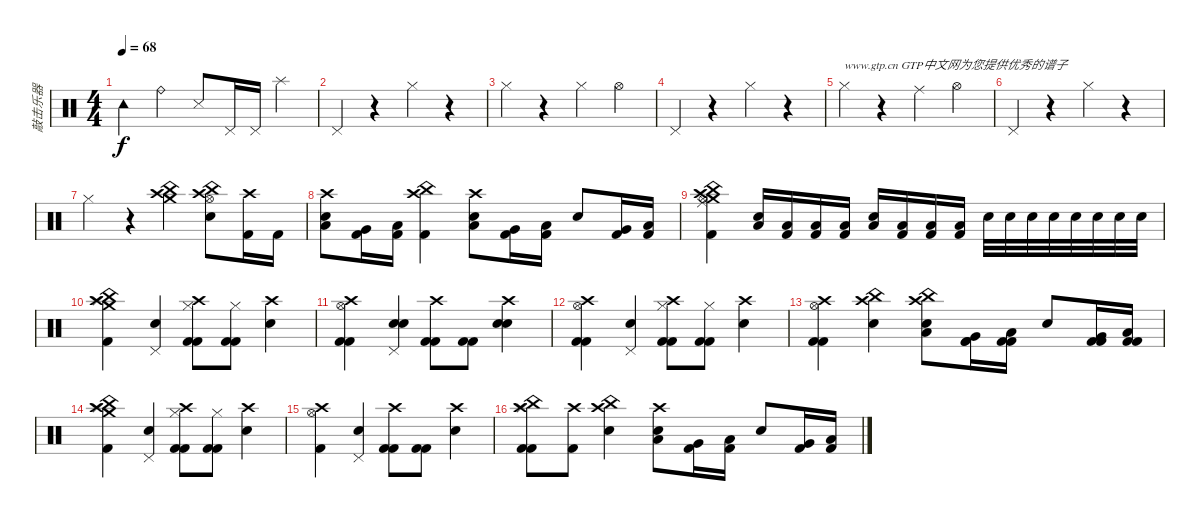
\track ("敲击乐器" "敲击乐器") {instrument percussion}
\staff {score}
\articulation defaults
\ts (4 4)
\tempo 68
\clef neutral
\ks c "Tambourine (hit)".4{dy f} "Ride (bell)".4 "Metronome (hit)".8 "Pedal Hi-Hat (hit)".16 "Pedal Hi-Hat (hit)".16 "Splash (hit)".4
|
"Pedal Hi-Hat (hit)".4 r.4 "Hi-Hat (closed)".4 r.4 |
"Hi-Hat (closed)".4 r.4 "Hi-Hat (closed)".4 "Hi-Hat (open)".4 |
"Pedal Hi-Hat (hit)".4 r.4 "Hi-Hat (closed)".4 r.4 |
"Hi-Hat (closed)".4{txt "www.gtp.cn GTP中文网为您提供优秀的谱子"} r.4 "Ride (middle)".4 "Hi-Hat (open)".4 |
"Pedal Hi-Hat (hit)".4 r.4 "Hi-Hat (closed)".4 r.4 |
"Hi-Hat (closed)".4 r.4 ("China (hit)" "Crash high (hit)" "Crash medium (hit)").4 ("Crash high (hit)" "Hi-Hat (open)" "China (hit)" "Electric Snare (hit)").8 ("Crash high (hit)" "Kick (hit) 2").16 "Kick (hit) 2".16 |
("Crash high (hit)" "Low Tom (hit)" "Electric Snare (hit)").8 ("Very Low Tom (hit)" "Kick (hit) 2").16 ("Low Floor Tom (hit)" "Kick (hit) 2").16 ("Crash high (hit)" "China (hit)" "Kick (hit) 2").4 ("Crash high (hit)" "Low Tom (hit)" "Electric Snare (hit)").8 ("Very Low Tom (hit)" "Kick (hit) 2").16 ("Low Floor Tom (hit)" "Kick (hit) 2").16 "Electric Snare (hit)".8 ("Very Low Tom (hit)" "Kick (hit) 2").16 ("Low Floor Tom (hit)" "Kick (hit) 2").16 |
("Crash medium (hit)" "Ride (middle)" "China (hit)" "Crash high (hit)" "Hi-Hat (open)" "Kick (hit) 2").4 ("Low Floor Tom (hit)" "Electric Snare (hit)").16 ("Low Floor Tom (hit)" "Kick (hit) 2").16 ("Low Floor Tom (hit)" "Kick (hit) 2").16 ("Low Floor Tom (hit)" "Kick (hit) 2").16 ("Low Floor Tom (hit)" "Electric Snare (hit)").16 ("Low Floor Tom (hit)" "Kick (hit) 2").16 ("Low Floor Tom (hit)" "Kick (hit) 2").16 ("Low Floor Tom (hit)" "Kick (hit) 2").16 "Electric Snare (hit)".32 "Electric Snare (hit)".32 "Electric Snare (hit)".32 "Electric Snare (hit)".32 "Electric Snare (hit)".32 "Electric Snare (hit)".32 "Electric Snare (hit)".32 "Electric Snare (hit)".32 |
("Kick (hit) 2" "Crash high (hit)" "China (hit)" "Splash (hit)" "Crash medium (hit)").4 ("Pedal Hi-Hat (hit)" "Snare (hit) 2").4 ("Crash high (hit)" "Hi-Hat (closed)" "Kick (hit) 2" "Kick (hit) 2").8 ("Hi-Hat (closed)" "Kick (hit) 2" "Kick (hit) 2").8 ("Crash high (hit)" "Electric Snare (hit)").4 |
("Crash high (hit)" "Hi-Hat (open)" "Kick (hit) 2" "Kick (hit) 2").4 ("Pedal Hi-Hat (hit)" "Snare (hit) 2" "Snare (hit) 2").4 ("Crash high (hit)" "Kick (hit) 2" "Kick (hit) 2").8 ("Kick (hit) 2" "Kick (hit) 2").8 ("Crash high (hit)" "Electric Snare (hit)" "Electric Snare (hit)").4 |
("Crash high (hit)" "Hi-Hat (open)" "Kick (hit) 2" "Kick (hit) 2").4 ("Pedal Hi-Hat (hit)" "Snare (hit) 2").4 ("Crash high (hit)" "Hi-Hat (closed)" "Kick (hit) 2" "Kick (hit) 2").8 ("Hi-Hat (closed)" "Kick (hit) 2" "Kick (hit) 2").8 ("Crash high (hit)" "Electric Snare (hit)").4 |
("Crash high (hit)" "Hi-Hat (open)" "Kick (hit) 2" "Kick (hit) 2").4 ("China (hit)" "Crash high (hit)" "Snare (hit) 2").4 ("China (hit)" "Crash high (hit)" "Low Tom (hit)" "Electric Snare (hit)").8 ("Very Low Tom (hit)" "Kick (hit) 2" "Kick (hit) 2").16 ("Low Floor Tom (hit)" "Kick (hit) 2" "Kick (hit) 2").16 "Electric Snare (hit)".8 ("Very Low Tom (hit)" "Kick (hit) 2" "Kick (hit) 2").16 ("Low Floor Tom (hit)" "Kick (hit) 2" "Kick (hit) 2").16 |
("Kick (hit) 2" "Crash high (hit)" "China (hit)" "Splash (hit)" "Crash medium (hit)").4 ("Pedal Hi-Hat (hit)" "Snare (hit) 2").4 ("Crash high (hit)" "Hi-Hat (closed)" "Kick (hit) 2" "Kick (hit) 2").8 ("Hi-Hat (closed)" "Kick (hit) 2" "Kick (hit) 2").8 ("Crash high (hit)" "Electric Snare (hit)").4 |
("Crash high (hit)" "Hi-Hat (open)" "Kick (hit) 2").4 ("Pedal Hi-Hat (hit)" "Snare (hit) 2").4 ("Crash high (hit)" "Kick (hit) 2" "Kick (hit) 2").8 ("Kick (hit) 2" "Kick (hit) 2").8 ("Crash high (hit)" "Electric Snare (hit)").4 |
("Kick (hit) 2" "Crash high (hit)" "China (hit)" "Splash (hit)" "Kick (hit) 2").8 ("Crash high (hit)" "Kick (hit) 2").8 ("China (hit)" "Crash high (hit)" "Snare (hit) 2").4 ("Crash high (hit)" "Low Tom (hit)" "Electric Snare (hit)").8 ("Very Low Tom (hit)" "Kick (hit) 2").16 ("Low Floor Tom (hit)" "Kick (hit) 2").16 "Electric Snare (hit)".8 ("Very Low Tom (hit)" "Kick (hit) 2").16 ("Low Floor Tom (hit)" "Kick (hit) 2").16
